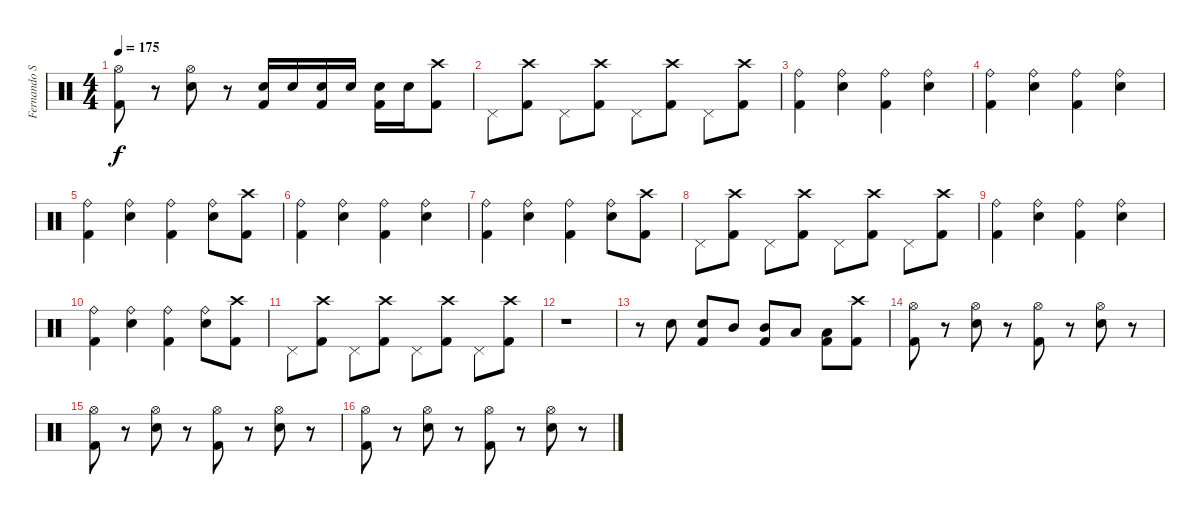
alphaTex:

\track ("Fernando Scarcella" "Fernando S") {instrument percussion}
\staff {score}
\articulation defaults
\ts (4 4)
\tempo 175
\clef neutral
\ks c
("Hi-Hat (open)" "Kick (hit) 2").8{dy f} r.8 ("Hi-Hat (open)" "Snare (hit) 2").8 r.8 ("Snare (hit) 2" "Kick (hit) 2").16 "Snare (hit) 2".16 ("Snare (hit) 2" "Kick (hit) 2").16 "Snare (hit) 2".16 ("Snare (hit) 2" "Kick (hit) 2").16 "Snare (hit) 2".16 ("Crash high (hit)" "Kick (hit) 2").8 |
"Pedal Hi-Hat (hit)".8 ("Crash high (hit)" "Kick (hit) 2").8 "Pedal Hi-Hat (hit)".8 ("Crash high (hit)" "Kick (hit) 2").8 "Pedal Hi-Hat (hit)".8 ("Crash high (hit)" "Kick (hit) 2").8 "Pedal Hi-Hat (hit)".8 ("Crash high (hit)" "Kick (hit) 2").8 |
("Kick (hit) 2" "Ride (bell)").4 ("Snare (hit) 2" "Ride (bell)").4 ("Kick (hit) 2" "Ride (bell)").4 ("Snare (hit) 2" "Ride (bell)").4 |
("Kick (hit) 2" "Ride (bell)").4 ("Snare (hit) 2" "Ride (bell)").4 ("Kick (hit) 2" "Ride (bell)").4 ("Snare (hit) 2" "Ride (bell)").4 |
("Kick (hit) 2" "Ride (bell)").4 ("Snare (hit) 2" "Ride (bell)").4 ("Kick (hit) 2" "Ride (bell)").4 ("Snare (hit) 2" "Ride (bell)").8 ("Crash high (hit)" "Kick (hit) 2").8 |
("Kick (hit) 2" "Ride (bell)").4 ("Snare (hit) 2" "Ride (bell)").4 ("Kick (hit) 2" "Ride (bell)").4 ("Snare (hit) 2" "Ride (bell)").4 |
("Kick (hit) 2" "Ride (bell)").4 ("Snare (hit) 2" "Ride (bell)").4 ("Kick (hit) 2" "Ride (bell)").4 ("Snare (hit) 2" "Ride (bell)").8 ("Kick (hit) 2" "Crash high (hit)").8 |
"Pedal Hi-Hat (hit)".8 ("Crash high (hit)" "Kick (hit) 2").8 "Pedal Hi-Hat (hit)".8 ("Crash high (hit)" "Kick (hit) 2").8 "Pedal Hi-Hat (hit)".8 ("Crash high (hit)" "Kick (hit) 2").8 "Pedal Hi-Hat (hit)".8 ("Crash high (hit)" "Kick (hit) 2").8 |
("Kick (hit) 2" "Ride (bell)").4 ("Snare (hit) 2" "Ride (bell)").4 ("Kick (hit) 2" "Ride (bell)").4 ("Snare (hit) 2" "Ride (bell)").4 |
("Kick (hit) 2" "Ride (bell)").4 ("Snare (hit) 2" "Ride (bell)").4 ("Kick (hit) 2" "Ride (bell)").4 ("Snare (hit) 2" "Ride (bell)").8 ("Kick (hit) 2" "Crash high (hit)").8 |
"Pedal Hi-Hat (hit)".8 ("Crash high (hit)" "Kick (hit) 2").8 "Pedal Hi-Hat (hit)".8 ("Crash high (hit)" "Kick (hit) 2").8 "Pedal Hi-Hat (hit)".8 ("Crash high (hit)" "Kick (hit) 2").8 "Pedal Hi-Hat (hit)".8 ("Crash high (hit)" "Kick (hit) 2").8 |
r.1 |
r.8 "Snare (hit) 2".8 ("Snare (hit) 2" "Kick (hit) 2").8 "Mid Tom (hit)".8 ("Mid Tom (hit)" "Kick (hit) 2").8 "Low Tom (hit)".8 ("Low Tom (hit)" "Kick (hit) 2").8 ("Crash high (hit)" "Kick (hit) 2").8 |
("Hi-Hat (open)" "Kick (hit) 2").8 r.8 ("Hi-Hat (open)" "Snare (hit) 2").8 r.8 ("Hi-Hat (open)" "Kick (hit) 2").8 r.8 ("Hi-Hat (open)" "Snare (hit) 2").8 r.8 |
("Hi-Hat (open)" "Kick (hit) 2").8 r.8 ("Hi-Hat (open)" "Snare (hit) 2").8 r.8 ("Hi-Hat (open)" "Kick (hit) 2").8 r.8 ("Hi-Hat (open)" "Snare (hit) 2").8 r.8 |
("Hi-Hat (open)" "Kick (hit) 2").8 r.8 ("Hi-Hat (open)" "Snare (hit) 2").8 r.8 ("Hi-Hat (open)" "Kick (hit) 2").8 r.8 ("Hi-Hat (open)" "Snare (hit) 2").8 r.8
